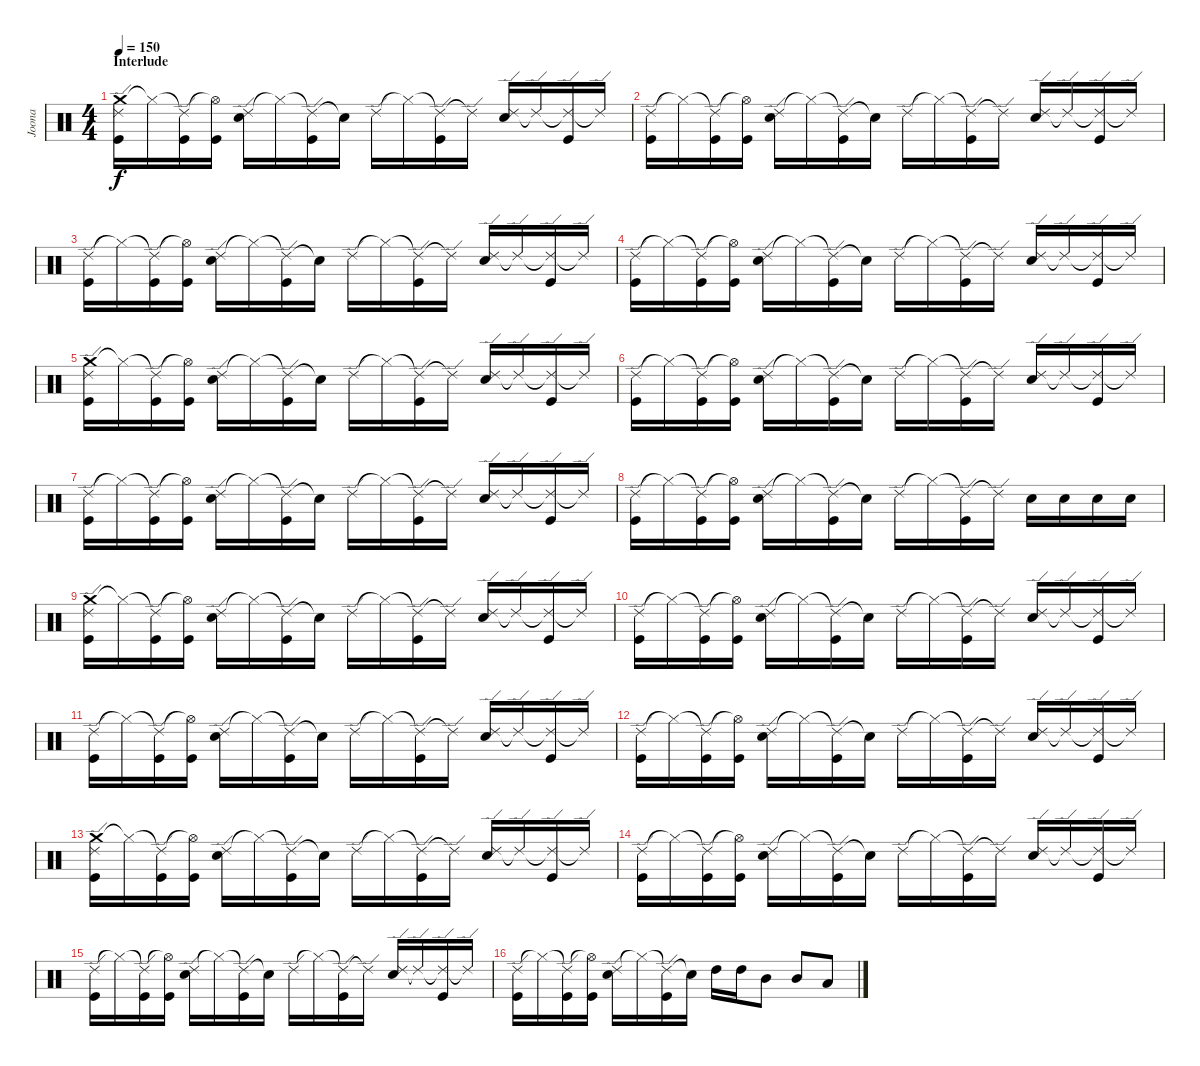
\track ("Joona" "Joona") {instrument percussion}
\staff {score}
\articulation defaults
\ts (4 4)
\section ("" "Interlude")
\tempo 150
\clef neutral
\ks c
("Crash medium (hit)" "Ride (edge) 2" "Kick (hit)").16{dy f} "Hi-Hat (closed)"{t}.16 ("Ride (edge) 2"{t} "Kick (hit)").16 ("Hi-Hat (open)"{t} "Kick (hit)").16 ("Ride (edge) 2" "Snare (hit) 2").16 "Hi-Hat (closed)"{t}.16 ("Ride (edge) 2"{t} "Kick (hit)").16 "Snare (hit)"{t}.16 "Ride (edge) 2".16 "Hi-Hat (closed)"{t}.16 ("Ride (edge) 2"{t} "Kick (hit)").16 "Ride (edge) 2"{t}.16 ("Ride (edge) 2" "Snare (hit) 2").16 "Ride (edge) 2"{t}.16 ("Ride (edge) 2"{t} "Kick (hit)").16 "Ride (edge) 2"{t}.16 |
("Ride (edge) 2" "Kick (hit)").16 "Hi-Hat (closed)"{t}.16 ("Ride (edge) 2"{t} "Kick (hit)").16 ("Hi-Hat (open)"{t} "Kick (hit)").16 ("Ride (edge) 2" "Snare (hit) 2").16 "Hi-Hat (closed)"{t}.16 ("Ride (edge) 2"{t} "Kick (hit)").16 "Snare (hit)"{t}.16 "Ride (edge) 2".16 "Hi-Hat (closed)"{t}.16 ("Ride (edge) 2"{t} "Kick (hit)").16 "Ride (edge) 2"{t}.16 ("Ride (edge) 2" "Snare (hit) 2").16 "Ride (edge) 2"{t}.16 ("Ride (edge) 2"{t} "Kick (hit)").16 "Ride (edge) 2"{t}.16 |
("Ride (edge) 2" "Kick (hit)").16 "Hi-Hat (closed)"{t}.16 ("Ride (edge) 2"{t} "Kick (hit)").16 ("Hi-Hat (open)"{t} "Kick (hit)").16 ("Ride (edge) 2" "Snare (hit) 2").16 "Hi-Hat (closed)"{t}.16 ("Ride (edge) 2"{t} "Kick (hit)").16 "Snare (hit)"{t}.16 "Ride (edge) 2".16 "Hi-Hat (closed)"{t}.16 ("Ride (edge) 2"{t} "Kick (hit)").16 "Ride (edge) 2"{t}.16 ("Ride (edge) 2" "Snare (hit) 2").16 "Ride (edge) 2"{t}.16 ("Ride (edge) 2"{t} "Kick (hit)").16 "Ride (edge) 2"{t}.16 |
("Ride (edge) 2" "Kick (hit)").16 "Hi-Hat (closed)"{t}.16 ("Ride (edge) 2"{t} "Kick (hit)").16 ("Hi-Hat (open)"{t} "Kick (hit)").16 ("Ride (edge) 2" "Snare (hit) 2").16 "Hi-Hat (closed)"{t}.16 ("Ride (edge) 2"{t} "Kick (hit)").16 "Snare (hit)"{t}.16 "Ride (edge) 2".16 "Hi-Hat (closed)"{t}.16 ("Ride (edge) 2"{t} "Kick (hit)").16 "Ride (edge) 2"{t}.16 ("Ride (edge) 2" "Snare (hit) 2").16 "Ride (edge) 2"{t}.16 ("Ride (edge) 2"{t} "Kick (hit)").16 "Ride (edge) 2"{t}.16 |
("Crash medium (hit)" "Ride (edge) 2" "Kick (hit)").16 "Hi-Hat (closed)"{t}.16 ("Ride (edge) 2"{t} "Kick (hit)").16 ("Hi-Hat (open)"{t} "Kick (hit)").16 ("Ride (edge) 2" "Snare (hit) 2").16 "Hi-Hat (closed)"{t}.16 ("Ride (edge) 2"{t} "Kick (hit)").16 "Snare (hit)"{t}.16 "Ride (edge) 2".16 "Hi-Hat (closed)"{t}.16 ("Ride (edge) 2"{t} "Kick (hit)").16 "Ride (edge) 2"{t}.16 ("Ride (edge) 2" "Snare (hit) 2").16 "Ride (edge) 2"{t}.16 ("Ride (edge) 2"{t} "Kick (hit)").16 "Ride (edge) 2"{t}.16 |
("Ride (edge) 2" "Kick (hit)").16 "Hi-Hat (closed)"{t}.16 ("Ride (edge) 2"{t} "Kick (hit)").16 ("Hi-Hat (open)"{t} "Kick (hit)").16 ("Ride (edge) 2" "Snare (hit) 2").16 "Hi-Hat (closed)"{t}.16 ("Ride (edge) 2"{t} "Kick (hit)").16 "Snare (hit)"{t}.16 "Ride (edge) 2".16 "Hi-Hat (closed)"{t}.16 ("Ride (edge) 2"{t} "Kick (hit)").16 "Ride (edge) 2"{t}.16 ("Ride (edge) 2" "Snare (hit) 2").16 "Ride (edge) 2"{t}.16 ("Ride (edge) 2"{t} "Kick (hit)").16 "Ride (edge) 2"{t}.16 |
("Ride (edge) 2" "Kick (hit)").16 "Hi-Hat (closed)"{t}.16 ("Ride (edge) 2"{t} "Kick (hit)").16 ("Hi-Hat (open)"{t} "Kick (hit)").16 ("Ride (edge) 2" "Snare (hit) 2").16 "Hi-Hat (closed)"{t}.16 ("Ride (edge) 2"{t} "Kick (hit)").16 "Snare (hit)"{t}.16 "Ride (edge) 2".16 "Hi-Hat (closed)"{t}.16 ("Ride (edge) 2"{t} "Kick (hit)").16 "Ride (edge) 2"{t}.16 ("Ride (edge) 2" "Snare (hit) 2").16 "Ride (edge) 2"{t}.16 ("Ride (edge) 2"{t} "Kick (hit)").16 "Ride (edge) 2"{t}.16 |
("Ride (edge) 2" "Kick (hit)").16 "Hi-Hat (closed)"{t}.16 ("Ride (edge) 2"{t} "Kick (hit)").16 ("Hi-Hat (open)"{t} "Kick (hit)").16 ("Ride (edge) 2" "Snare (hit) 2").16 "Hi-Hat (closed)"{t}.16 ("Ride (edge) 2"{t} "Kick (hit)").16 "Snare (hit)"{t}.16 "Ride (edge) 2".16 "Hi-Hat (closed)"{t}.16 ("Ride (edge) 2"{t} "Kick (hit)").16 "Ride (edge) 2"{t}.16 "Snare (hit) 2".16 "Snare (hit) 2".16 "Snare (hit) 2".16 "Snare (hit) 2".16 |
("Crash medium (hit)" "Ride (edge) 2" "Kick (hit)").16 "Hi-Hat (closed)"{t}.16 ("Ride (edge) 2"{t} "Kick (hit)").16 ("Hi-Hat (open)"{t} "Kick (hit)").16 ("Ride (edge) 2" "Snare (hit) 2").16 "Hi-Hat (closed)"{t}.16 ("Ride (edge) 2"{t} "Kick (hit)").16 "Snare (hit)"{t}.16 "Ride (edge) 2".16 "Hi-Hat (closed)"{t}.16 ("Ride (edge) 2"{t} "Kick (hit)").16 "Ride (edge) 2"{t}.16 ("Ride (edge) 2" "Snare (hit) 2").16 "Ride (edge) 2"{t}.16 ("Ride (edge) 2"{t} "Kick (hit)").16 "Ride (edge) 2"{t}.16 |
("Ride (edge) 2" "Kick (hit)").16 "Hi-Hat (closed)"{t}.16 ("Ride (edge) 2"{t} "Kick (hit)").16 ("Hi-Hat (open)"{t} "Kick (hit)").16 ("Ride (edge) 2" "Snare (hit) 2").16 "Hi-Hat (closed)"{t}.16 ("Ride (edge) 2"{t} "Kick (hit)").16 "Snare (hit)"{t}.16 "Ride (edge) 2".16 "Hi-Hat (closed)"{t}.16 ("Ride (edge) 2"{t} "Kick (hit)").16 "Ride (edge) 2"{t}.16 ("Ride (edge) 2" "Snare (hit) 2").16 "Ride (edge) 2"{t}.16 ("Ride (edge) 2"{t} "Kick (hit)").16 "Ride (edge) 2"{t}.16 |
("Ride (edge) 2" "Kick (hit)").16 "Hi-Hat (closed)"{t}.16 ("Ride (edge) 2"{t} "Kick (hit)").16 ("Hi-Hat (open)"{t} "Kick (hit)").16 ("Ride (edge) 2" "Snare (hit) 2").16 "Hi-Hat (closed)"{t}.16 ("Ride (edge) 2"{t} "Kick (hit)").16 "Snare (hit)"{t}.16 "Ride (edge) 2".16 "Hi-Hat (closed)"{t}.16 ("Ride (edge) 2"{t} "Kick (hit)").16 "Ride (edge) 2"{t}.16 ("Ride (edge) 2" "Snare (hit) 2").16 "Ride (edge) 2"{t}.16 ("Ride (edge) 2"{t} "Kick (hit)").16 "Ride (edge) 2"{t}.16 |
("Ride (edge) 2" "Kick (hit)").16 "Hi-Hat (closed)"{t}.16 ("Ride (edge) 2"{t} "Kick (hit)").16 ("Hi-Hat (open)"{t} "Kick (hit)").16 ("Ride (edge) 2" "Snare (hit) 2").16 "Hi-Hat (closed)"{t}.16 ("Ride (edge) 2"{t} "Kick (hit)").16 "Snare (hit)"{t}.16 "Ride (edge) 2".16 "Hi-Hat (closed)"{t}.16 ("Ride (edge) 2"{t} "Kick (hit)").16 "Ride (edge) 2"{t}.16 ("Ride (edge) 2" "Snare (hit) 2").16 "Ride (edge) 2"{t}.16 ("Ride (edge) 2"{t} "Kick (hit)").16 "Ride (edge) 2"{t}.16 |
("Crash medium (hit)" "Ride (edge) 2" "Kick (hit)").16 "Hi-Hat (closed)"{t}.16 ("Ride (edge) 2"{t} "Kick (hit)").16 ("Hi-Hat (open)"{t} "Kick (hit)").16 ("Ride (edge) 2" "Snare (hit) 2").16 "Hi-Hat (closed)"{t}.16 ("Ride (edge) 2"{t} "Kick (hit)").16 "Snare (hit)"{t}.16 "Ride (edge) 2".16 "Hi-Hat (closed)"{t}.16 ("Ride (edge) 2"{t} "Kick (hit)").16 "Ride (edge) 2"{t}.16 ("Ride (edge) 2" "Snare (hit) 2").16 "Ride (edge) 2"{t}.16 ("Ride (edge) 2"{t} "Kick (hit)").16 "Ride (edge) 2"{t}.16 |
("Ride (edge) 2" "Kick (hit)").16 "Hi-Hat (closed)"{t}.16 ("Ride (edge) 2"{t} "Kick (hit)").16 ("Hi-Hat (open)"{t} "Kick (hit)").16 ("Ride (edge) 2" "Snare (hit) 2").16 "Hi-Hat (closed)"{t}.16 ("Ride (edge) 2"{t} "Kick (hit)").16 "Snare (hit)"{t}.16 "Ride (edge) 2".16 "Hi-Hat (closed)"{t}.16 ("Ride (edge) 2"{t} "Kick (hit)").16 "Ride (edge) 2"{t}.16 ("Ride (edge) 2" "Snare (hit) 2").16 "Ride (edge) 2"{t}.16 ("Ride (edge) 2"{t} "Kick (hit)").16 "Ride (edge) 2"{t}.16 |
("Ride (edge) 2" "Kick (hit)").16 "Hi-Hat (closed)"{t}.16 ("Ride (edge) 2"{t} "Kick (hit)").16 ("Hi-Hat (open)"{t} "Kick (hit)").16 ("Ride (edge) 2" "Snare (hit) 2").16 "Hi-Hat (closed)"{t}.16 ("Ride (edge) 2"{t} "Kick (hit)").16 "Snare (hit)"{t}.16 "Ride (edge) 2".16 "Hi-Hat (closed)"{t}.16 ("Ride (edge) 2"{t} "Kick (hit)").16 "Ride (edge) 2"{t}.16 ("Ride (edge) 2" "Snare (hit) 2").16 "Ride (edge) 2"{t}.16 ("Ride (edge) 2"{t} "Kick (hit)").16 "Ride (edge) 2"{t}.16 |
("Ride (edge) 2" "Kick (hit)").16 "Hi-Hat (closed)"{t}.16 ("Ride (edge) 2"{t} "Kick (hit)").16 ("Hi-Hat (open)"{t} "Kick (hit)").16 ("Ride (edge) 2" "Snare (hit) 2").16 "Hi-Hat (closed)"{t}.16 ("Ride (edge) 2"{t} "Kick (hit)").16 "Snare (hit)"{t}.16 "High Tom (hit)".16 "High Tom (hit)".16 "Mid Tom (hit)".8 "Mid Tom (hit)".8 "Low Tom (hit)".8
